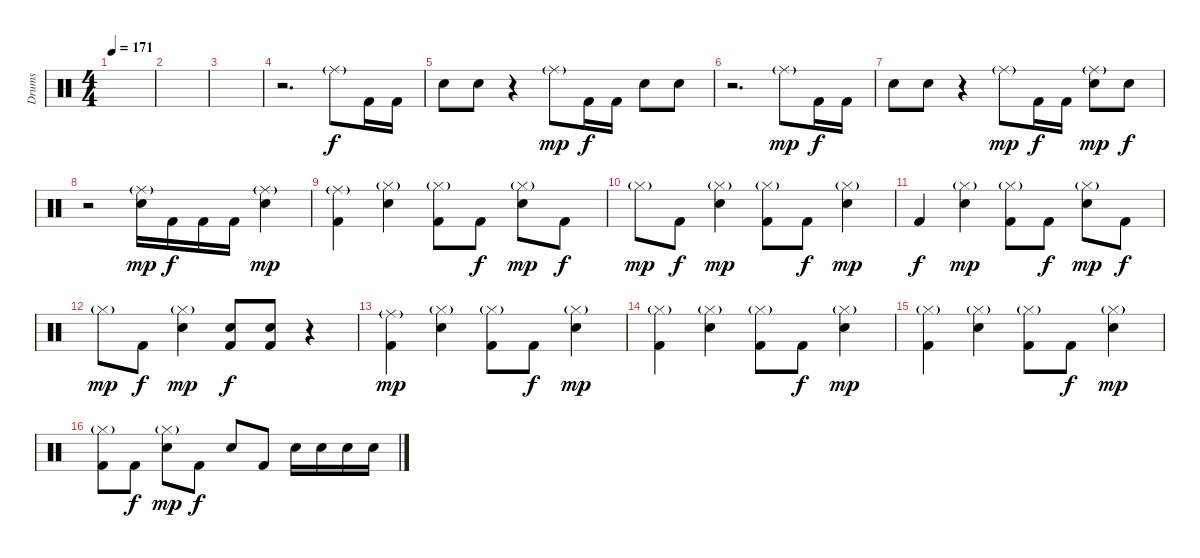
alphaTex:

\track ("Drums" "Drums") {instrument percussion}
\staff {score}
\articulation defaults
\ts (4 4)
\tempo 171
\clef neutral
\ks c
|
|
|
r.2{d} "Ride (middle)"{g}.8 "Kick (hit) 2".16{dy f} "Kick (hit) 2".16 |
"Electric Snare (hit)".8 "Electric Snare (hit)".8 r.4 "Ride (middle)"{g}.8{dy mp} "Kick (hit) 2".16{dy f} "Kick (hit) 2".16 "Electric Snare (hit)".8 "Electric Snare (hit)".8 |
r.2{d} "Ride (middle)"{g}.8{dy mp} "Kick (hit) 2".16{dy f} "Kick (hit) 2".16 |
"Electric Snare (hit)".8 "Electric Snare (hit)".8 r.4 "Ride (middle)"{g}.8{dy mp} "Kick (hit) 2".16{dy f} "Kick (hit) 2".16 ("Ride (middle)"{g} "Electric Snare (hit)").8{dy mp} "Electric Snare (hit)".8{dy f} |
r.2 ("Ride (middle)"{g} "Electric Snare (hit)").16{dy mp} "Kick (hit) 2".16{dy f} "Kick (hit) 2".16 "Kick (hit) 2".16 ("Ride (middle)"{g} "Electric Snare (hit)").4{dy mp} |
("Ride (middle)"{g} "Kick (hit) 2").4 ("Hi-Hat (closed)"{g} "Electric Snare (hit)").4 ("Hi-Hat (closed)"{g} "Kick (hit) 2").8 "Kick (hit) 2".8{dy f} ("Hi-Hat (closed)"{g} "Electric Snare (hit)").8{dy mp} "Kick (hit) 2".8{dy f} |
"Hi-Hat (closed)"{g}.8{dy mp} "Kick (hit) 2".8{dy f} ("Hi-Hat (closed)"{g} "Electric Snare (hit)").4{dy mp} ("Hi-Hat (closed)"{g} "Kick (hit) 2").8 "Kick (hit) 2".8{dy f} ("Hi-Hat (closed)"{g} "Electric Snare (hit)").4{dy mp} |
"Kick (hit) 2".4{dy f} ("Hi-Hat (closed)"{g} "Electric Snare (hit)").4{dy mp} ("Hi-Hat (closed)"{g} "Kick (hit) 2").8 "Kick (hit) 2".8{dy f} ("Hi-Hat (closed)"{g} "Electric Snare (hit)").8{dy mp} "Kick (hit) 2".8{dy f} |
"Hi-Hat (closed)"{g}.8{dy mp} "Kick (hit) 2".8{dy f} ("Hi-Hat (closed)"{g} "Electric Snare (hit)").4{dy mp} ("Electric Snare (hit)" "Kick (hit) 2").8{dy f} ("Electric Snare (hit)" "Kick (hit) 2").8 r.4 |
("Ride (middle)"{g} "Kick (hit) 2").4{dy mp} ("Hi-Hat (closed)"{g} "Electric Snare (hit)").4 ("Hi-Hat (closed)"{g} "Kick (hit) 2").8 "Kick (hit) 2".8{dy f} ("Hi-Hat (closed)"{g} "Electric Snare (hit)").4{dy mp} |
("Hi-Hat (closed)"{g} "Kick (hit) 2").4 ("Hi-Hat (closed)"{g} "Electric Snare (hit)").4 ("Hi-Hat (closed)"{g} "Kick (hit) 2").8 "Kick (hit) 2".8{dy f} ("Hi-Hat (closed)"{g} "Electric Snare (hit)").4{dy mp} |
("Hi-Hat (closed)"{g} "Kick (hit) 2").4 ("Hi-Hat (closed)"{g} "Electric Snare (hit)").4 ("Hi-Hat (closed)"{g} "Kick (hit) 2").8 "Kick (hit) 2".8{dy f} ("Hi-Hat (closed)"{g} "Electric Snare (hit)").4{dy mp} |
("Hi-Hat (closed)"{g} "Kick (hit) 2").8 "Kick (hit) 2".8{dy f} ("Hi-Hat (closed)"{g} "Electric Snare (hit)").8{dy mp} "Kick (hit) 2".8{dy f} "Electric Snare (hit)".8 "Kick (hit) 2".8 "Electric Snare (hit)".16 "Electric Snare (hit)".16 "Electric Snare (hit)".16 "Electric Snare (hit)".16
